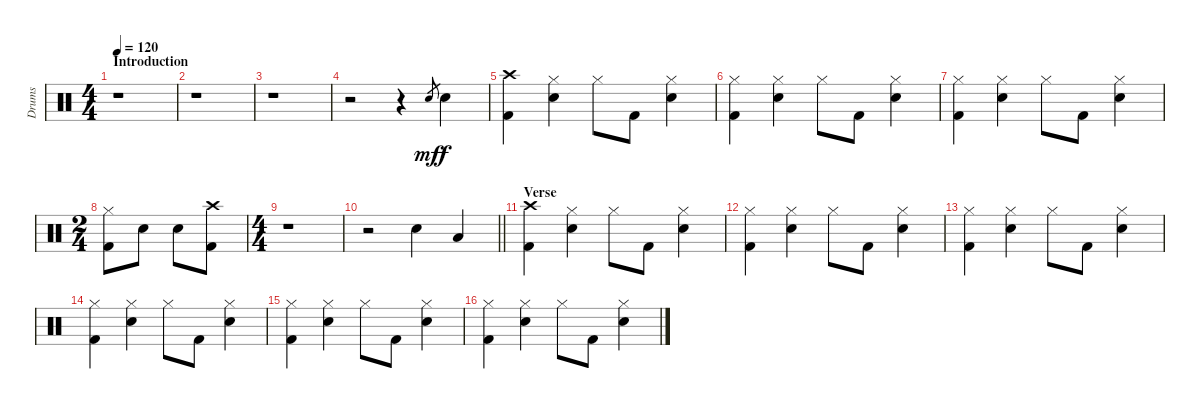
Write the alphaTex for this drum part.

\track ("Drums" "Drums") {instrument percussion}
\staff {score}
\articulation defaults
\ts (4 4)
\section ("" "Introduction")
\tempo 120
\clef neutral
\ks c
r.1{dy mf} |
r.1 |
r.1 |
r.2 r.4 "Electric Snare (hit)".8{gr} "Electric Snare (hit)".4{dy f} |
("Crash high (hit)" "Kick (hit) 2").4 ("Hi-Hat (closed)" "Electric Snare (hit)").4 "Hi-Hat (closed)".8 "Kick (hit) 2".8 ("Hi-Hat (closed)" "Electric Snare (hit)").4 |
("Hi-Hat (closed)" "Kick (hit) 2").4 ("Hi-Hat (closed)" "Electric Snare (hit)").4 "Hi-Hat (closed)".8 "Kick (hit) 2".8 ("Hi-Hat (closed)" "Electric Snare (hit)").4 |
("Hi-Hat (closed)" "Kick (hit) 2").4 ("Hi-Hat (closed)" "Electric Snare (hit)").4 "Hi-Hat (closed)".8 "Kick (hit) 2".8 ("Hi-Hat (closed)" "Electric Snare (hit)").4 |
\ts (2 4)
("Hi-Hat (closed)" "Kick (hit) 2").8 "Electric Snare (hit)".8 "Electric Snare (hit)".8 ("Crash high (hit)" "Kick (hit) 2").8 |
\ts (4 4)
r.1 |
\barLineRight lightlight
r.2 "Electric Snare (hit)".4 "Low Tom (hit)".4 |
\section ("" "Verse")
("Crash high (hit)" "Kick (hit) 2").4 ("Hi-Hat (closed)" "Electric Snare (hit)").4 "Hi-Hat (closed)".8 "Kick (hit) 2".8 ("Hi-Hat (closed)" "Electric Snare (hit)").4 |
("Hi-Hat (closed)" "Kick (hit) 2").4 ("Hi-Hat (closed)" "Electric Snare (hit)").4 "Hi-Hat (closed)".8 "Kick (hit) 2".8 ("Hi-Hat (closed)" "Electric Snare (hit)").4 |
("Hi-Hat (closed)" "Kick (hit) 2").4 ("Hi-Hat (closed)" "Electric Snare (hit)").4 "Hi-Hat (closed)".8 "Kick (hit) 2".8 ("Hi-Hat (closed)" "Electric Snare (hit)").4 |
("Hi-Hat (closed)" "Kick (hit) 2").4 ("Hi-Hat (closed)" "Electric Snare (hit)").4 "Hi-Hat (closed)".8 "Kick (hit) 2".8 ("Hi-Hat (closed)" "Electric Snare (hit)").4 |
("Hi-Hat (closed)" "Kick (hit) 2").4 ("Hi-Hat (closed)" "Electric Snare (hit)").4 "Hi-Hat (closed)".8 "Kick (hit) 2".8 ("Hi-Hat (closed)" "Electric Snare (hit)").4 |
("Hi-Hat (closed)" "Kick (hit) 2").4 ("Hi-Hat (closed)" "Electric Snare (hit)").4 "Hi-Hat (closed)".8 "Kick (hit) 2".8 ("Hi-Hat (closed)" "Electric Snare (hit)").4
